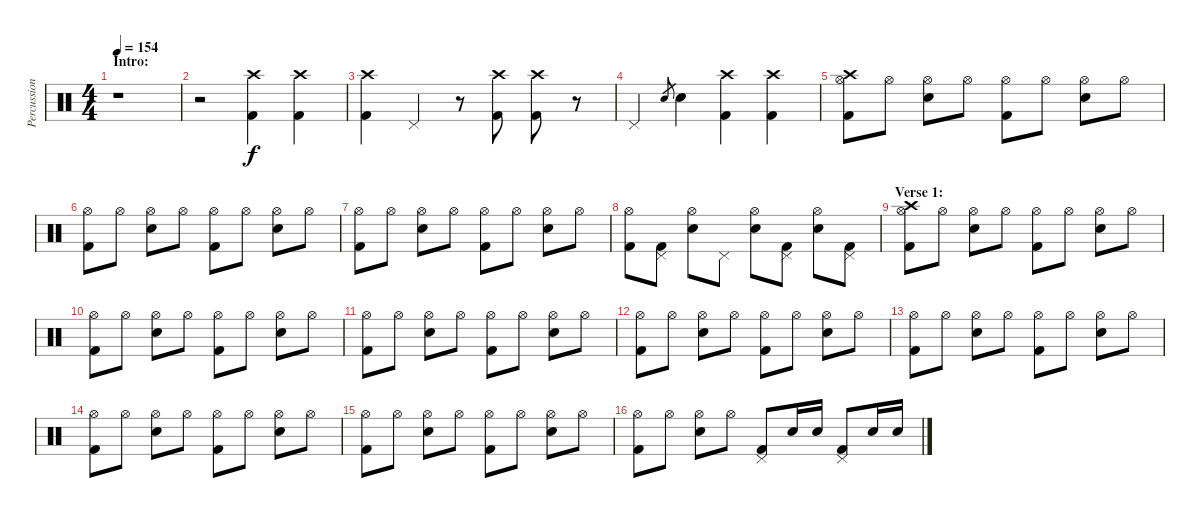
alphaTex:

\track ("Percussion" "Percussion") {instrument percussion}
\staff {score}
\articulation defaults
\ts (4 4)
\section ("" "Intro:")
\tempo 154
\clef neutral
\ks c
r.1{dy f} |
r.2 ("Crash high (hit)" "Kick (hit) 2").4 ("Crash high (hit)" "Kick (hit) 2").4 |
("Crash high (hit)" "Kick (hit) 2").4 "Pedal Hi-Hat (hit)".4 r.8 ("Crash high (hit)" "Kick (hit) 2").8 ("Crash high (hit)" "Kick (hit) 2").8 r.8 |
"Pedal Hi-Hat (hit)".4 "Snare (hit) 2".8{gr} "Snare (hit) 2".4 ("Crash high (hit)" "Kick (hit) 2").4 ("Crash high (hit)" "Kick (hit) 2").4 |
("Hi-Hat (open)" "Crash high (hit)" "Kick (hit) 2").8 "Hi-Hat (open)".8 ("Hi-Hat (open)" "Snare (hit) 2").8 "Hi-Hat (open)".8 ("Hi-Hat (open)" "Kick (hit) 2").8 "Hi-Hat (open)".8 ("Hi-Hat (open)" "Snare (hit) 2").8 "Hi-Hat (open)".8 |
("Hi-Hat (open)" "Kick (hit) 2").8 "Hi-Hat (open)".8 ("Hi-Hat (open)" "Snare (hit) 2").8 "Hi-Hat (open)".8 ("Hi-Hat (open)" "Kick (hit) 2").8 "Hi-Hat (open)".8 ("Hi-Hat (open)" "Snare (hit) 2").8 "Hi-Hat (open)".8 |
("Hi-Hat (open)" "Kick (hit) 2").8 "Hi-Hat (open)".8 ("Hi-Hat (open)" "Snare (hit) 2").8 "Hi-Hat (open)".8 ("Hi-Hat (open)" "Kick (hit) 2").8 "Hi-Hat (open)".8 ("Hi-Hat (open)" "Snare (hit) 2").8 "Hi-Hat (open)".8 |
("Hi-Hat (open)" "Kick (hit) 2").8 ("Pedal Hi-Hat (hit)" "Kick (hit) 2").8 ("Hi-Hat (open)" "Snare (hit) 2").8 "Pedal Hi-Hat (hit)".8 ("Hi-Hat (open)" "Snare (hit) 2").8 ("Pedal Hi-Hat (hit)" "Kick (hit) 2").8 ("Hi-Hat (open)" "Snare (hit) 2").8 ("Pedal Hi-Hat (hit)" "Kick (hit) 2").8 |
\section ("" "Verse 1:")
("Hi-Hat (open)" "Crash high (hit)" "Kick (hit) 2").8 "Hi-Hat (open)".8 ("Hi-Hat (open)" "Snare (hit) 2").8 "Hi-Hat (open)".8 ("Hi-Hat (open)" "Kick (hit) 2").8 "Hi-Hat (open)".8 ("Hi-Hat (open)" "Snare (hit) 2").8 "Hi-Hat (open)".8 |
("Hi-Hat (open)" "Kick (hit) 2").8 "Hi-Hat (open)".8 ("Hi-Hat (open)" "Snare (hit) 2").8 "Hi-Hat (open)".8 ("Hi-Hat (open)" "Kick (hit) 2").8 "Hi-Hat (open)".8 ("Hi-Hat (open)" "Snare (hit) 2").8 "Hi-Hat (open)".8 |
("Hi-Hat (open)" "Kick (hit) 2").8 "Hi-Hat (open)".8 ("Hi-Hat (open)" "Snare (hit) 2").8 "Hi-Hat (open)".8 ("Hi-Hat (open)" "Kick (hit) 2").8 "Hi-Hat (open)".8 ("Hi-Hat (open)" "Snare (hit) 2").8 "Hi-Hat (open)".8 |
("Hi-Hat (open)" "Kick (hit) 2").8 "Hi-Hat (open)".8 ("Hi-Hat (open)" "Snare (hit) 2").8 "Hi-Hat (open)".8 ("Hi-Hat (open)" "Kick (hit) 2").8 "Hi-Hat (open)".8 ("Hi-Hat (open)" "Snare (hit) 2").8 "Hi-Hat (open)".8 |
("Hi-Hat (open)" "Kick (hit) 2").8 "Hi-Hat (open)".8 ("Hi-Hat (open)" "Snare (hit) 2").8 "Hi-Hat (open)".8 ("Hi-Hat (open)" "Kick (hit) 2").8 "Hi-Hat (open)".8 ("Hi-Hat (open)" "Snare (hit) 2").8 "Hi-Hat (open)".8 |
("Hi-Hat (open)" "Kick (hit) 2").8 "Hi-Hat (open)".8 ("Hi-Hat (open)" "Snare (hit) 2").8 "Hi-Hat (open)".8 ("Hi-Hat (open)" "Kick (hit) 2").8 "Hi-Hat (open)".8 ("Hi-Hat (open)" "Snare (hit) 2").8 "Hi-Hat (open)".8 |
("Hi-Hat (open)" "Kick (hit) 2").8 "Hi-Hat (open)".8 ("Hi-Hat (open)" "Snare (hit) 2").8 "Hi-Hat (open)".8 ("Hi-Hat (open)" "Kick (hit) 2").8 "Hi-Hat (open)".8 ("Hi-Hat (open)" "Snare (hit) 2").8 "Hi-Hat (open)".8 |
("Hi-Hat (open)" "Kick (hit) 2").8 "Hi-Hat (open)".8 ("Hi-Hat (open)" "Snare (hit) 2").8 "Hi-Hat (open)".8 ("Pedal Hi-Hat (hit)" "Kick (hit) 2").8 "Snare (hit) 2".16 "Snare (hit) 2".16 ("Pedal Hi-Hat (hit)" "Kick (hit) 2").8 "Snare (hit) 2".16 "Snare (hit) 2".16
